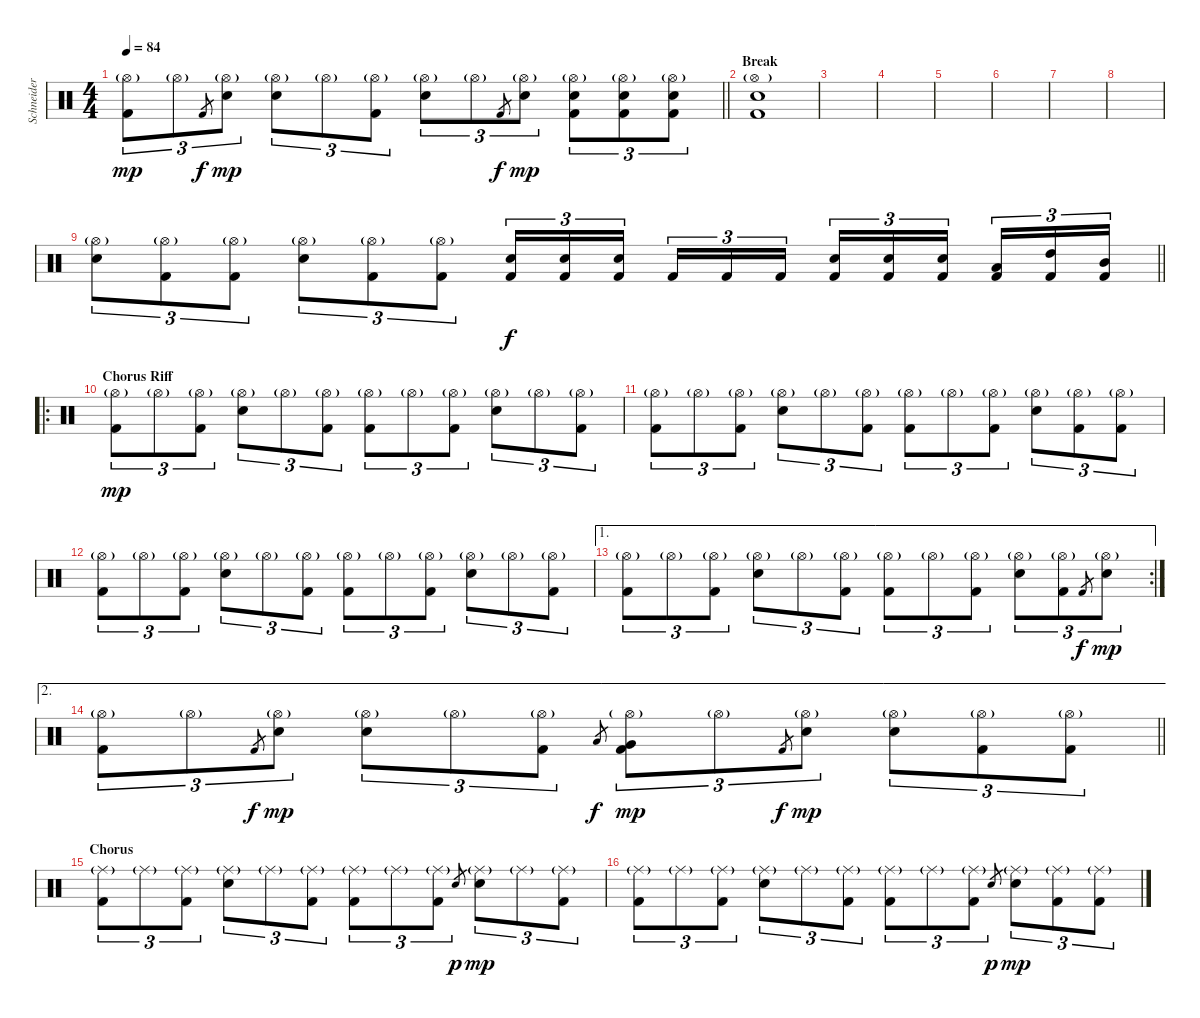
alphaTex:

\track ("Schneider" "Schneider") {instrument percussion}
\staff {score}
\articulation defaults
\ts (4 4)
\tempo 84
\clef neutral
\barLineRight lightlight
\ks c
("Hi-Hat (open)"{g} "Kick (hit) 2").8{tu (3 2) dy mp} "Hi-Hat (open)"{g}.8{tu (3 2)} "Kick (hit) 2".8{gr dy f} ("Hi-Hat (open)"{g} "Electric Snare (hit)").8{tu (3 2) dy mp} ("Hi-Hat (open)"{g} "Electric Snare (hit)").8{tu (3 2)} "Hi-Hat (open)"{g}.8{tu (3 2)} ("Hi-Hat (open)"{g} "Kick (hit) 2").8{tu (3 2)} ("Hi-Hat (open)"{g} "Electric Snare (hit)").8{tu (3 2)} "Hi-Hat (open)"{g}.8{tu (3 2)} "Kick (hit) 2".8{gr dy f} ("Hi-Hat (open)"{g} "Electric Snare (hit)").8{tu (3 2) dy mp} ("Hi-Hat (open)"{g} "Kick (hit) 2" "Electric Snare (hit)").8{tu (3 2)} ("Hi-Hat (open)"{g} "Kick (hit) 2" "Electric Snare (hit)").8{tu (3 2)} ("Hi-Hat (open)"{g} "Kick (hit) 2" "Electric Snare (hit)").8{tu (3 2)} |
\section ("" "Break")
("Hi-Hat (open)"{g} "Kick (hit) 2" "Electric Snare (hit)").1 |
|
|
|
|
|
|
\barLineRight lightlight
("Hi-Hat (open)"{g} "Electric Snare (hit)").8{tu (3 2)} ("Hi-Hat (open)"{g} "Kick (hit) 2").8{tu (3 2)} ("Hi-Hat (open)"{g} "Kick (hit) 2").8{tu (3 2)} ("Hi-Hat (open)"{g} "Electric Snare (hit)").8{tu (3 2)} ("Hi-Hat (open)"{g} "Kick (hit) 2").8{tu (3 2)} ("Hi-Hat (open)"{g} "Kick (hit) 2").8{tu (3 2)} ("Kick (hit) 2" "Electric Snare (hit)").16{tu (3 2) dy f} ("Kick (hit) 2" "Electric Snare (hit)").16{tu (3 2)} ("Kick (hit) 2" "Electric Snare (hit)").16{tu (3 2) beam splitsecondary} "Kick (hit) 2".16{tu (3 2)} "Kick (hit) 2".16{tu (3 2)} "Kick (hit) 2".16{tu (3 2)} ("Kick (hit) 2" "Electric Snare (hit)").16{tu (3 2)} ("Kick (hit) 2" "Electric Snare (hit)").16{tu (3 2)} ("Kick (hit) 2" "Electric Snare (hit)").16{tu (3 2) beam splitsecondary} ("Kick (hit) 2" "Low Tom (hit)").16{tu (3 2)} ("Kick (hit) 2" "High Tom (hit)").16{tu (3 2)} ("Kick (hit) 2" "Mid Tom (hit)").16{tu (3 2)} |
\ro
\section ("" "Chorus Riff")
("Hi-Hat (open)"{g} "Kick (hit) 2").8{tu (3 2) dy mp} "Hi-Hat (open)"{g}.8{tu (3 2)} ("Hi-Hat (open)"{g} "Kick (hit) 2").8{tu (3 2)} ("Hi-Hat (open)"{g} "Electric Snare (hit)").8{tu (3 2)} "Hi-Hat (open)"{g}.8{tu (3 2)} ("Hi-Hat (open)"{g} "Kick (hit) 2").8{tu (3 2)} ("Hi-Hat (open)"{g} "Kick (hit) 2").8{tu (3 2)} "Hi-Hat (open)"{g}.8{tu (3 2)} ("Hi-Hat (open)"{g} "Kick (hit) 2").8{tu (3 2)} ("Hi-Hat (open)"{g} "Electric Snare (hit)").8{tu (3 2)} "Hi-Hat (open)"{g}.8{tu (3 2)} ("Hi-Hat (open)"{g} "Kick (hit) 2").8{tu (3 2)} |
("Hi-Hat (open)"{g} "Kick (hit) 2").8{tu (3 2)} "Hi-Hat (open)"{g}.8{tu (3 2)} ("Hi-Hat (open)"{g} "Kick (hit) 2").8{tu (3 2)} ("Hi-Hat (open)"{g} "Electric Snare (hit)").8{tu (3 2)} "Hi-Hat (open)"{g}.8{tu (3 2)} ("Hi-Hat (open)"{g} "Kick (hit) 2").8{tu (3 2)} ("Hi-Hat (open)"{g} "Kick (hit) 2").8{tu (3 2)} "Hi-Hat (open)"{g}.8{tu (3 2)} ("Hi-Hat (open)"{g} "Kick (hit) 2").8{tu (3 2)} ("Hi-Hat (open)"{g} "Electric Snare (hit)").8{tu (3 2)} ("Hi-Hat (open)"{g} "Kick (hit) 2").8{tu (3 2)} ("Hi-Hat (open)"{g} "Kick (hit) 2").8{tu (3 2)} |
("Hi-Hat (open)"{g} "Kick (hit) 2").8{tu (3 2)} "Hi-Hat (open)"{g}.8{tu (3 2)} ("Hi-Hat (open)"{g} "Kick (hit) 2").8{tu (3 2)} ("Hi-Hat (open)"{g} "Electric Snare (hit)").8{tu (3 2)} "Hi-Hat (open)"{g}.8{tu (3 2)} ("Hi-Hat (open)"{g} "Kick (hit) 2").8{tu (3 2)} ("Hi-Hat (open)"{g} "Kick (hit) 2").8{tu (3 2)} "Hi-Hat (open)"{g}.8{tu (3 2)} ("Hi-Hat (open)"{g} "Kick (hit) 2").8{tu (3 2)} ("Hi-Hat (open)"{g} "Electric Snare (hit)").8{tu (3 2)} "Hi-Hat (open)"{g}.8{tu (3 2)} ("Hi-Hat (open)"{g} "Kick (hit) 2").8{tu (3 2)} |
\ae 1
\rc 2
("Hi-Hat (open)"{g} "Kick (hit) 2").8{tu (3 2)} "Hi-Hat (open)"{g}.8{tu (3 2)} ("Hi-Hat (open)"{g} "Kick (hit) 2").8{tu (3 2)} ("Hi-Hat (open)"{g} "Electric Snare (hit)").8{tu (3 2)} "Hi-Hat (open)"{g}.8{tu (3 2)} ("Hi-Hat (open)"{g} "Kick (hit) 2").8{tu (3 2)} ("Hi-Hat (open)"{g} "Kick (hit) 2").8{tu (3 2)} "Hi-Hat (open)"{g}.8{tu (3 2)} ("Hi-Hat (open)"{g} "Kick (hit) 2").8{tu (3 2)} ("Hi-Hat (open)"{g} "Electric Snare (hit)").8{tu (3 2)} ("Hi-Hat (open)"{g} "Kick (hit) 2").8{tu (3 2)} "Kick (hit) 2".8{gr dy f} ("Hi-Hat (open)"{g} "Electric Snare (hit)").8{tu (3 2) dy mp} |
\ae 2
\barLineRight lightlight
("Hi-Hat (open)"{g} "Kick (hit) 2").8{tu (3 2)} "Hi-Hat (open)"{g}.8{tu (3 2)} "Kick (hit) 2".8{gr dy f} ("Hi-Hat (open)"{g} "Electric Snare (hit)").8{tu (3 2) dy mp} ("Hi-Hat (open)"{g} "Electric Snare (hit)").8{tu (3 2)} "Hi-Hat (open)"{g}.8{tu (3 2)} ("Hi-Hat (open)"{g} "Kick (hit) 2").8{tu (3 2)} "Low Tom (hit)".8{gr dy f} ("Hi-Hat (open)"{g} "Kick (hit) 2" "Very Low Tom (hit)").8{tu (3 2) dy mp} "Hi-Hat (open)"{g}.8{tu (3 2)} "Kick (hit) 2".8{gr dy f} ("Hi-Hat (open)"{g} "Electric Snare (hit)").8{tu (3 2) dy mp} ("Hi-Hat (open)"{g} "Electric Snare (hit)").8{tu (3 2)} ("Hi-Hat (open)"{g} "Kick (hit) 2").8{tu (3 2)} ("Hi-Hat (open)"{g} "Kick (hit) 2").8{tu (3 2)} |
\section ("" "Chorus")
("Ride (middle)"{g} "Kick (hit) 2").8{tu (3 2)} "Ride (middle)"{g}.8{tu (3 2)} ("Ride (middle)"{g} "Kick (hit) 2").8{tu (3 2)} ("Ride (middle)"{g} "Electric Snare (hit)").8{tu (3 2)} "Ride (middle)"{g}.8{tu (3 2)} ("Ride (middle)"{g} "Kick (hit) 2").8{tu (3 2)} ("Ride (middle)"{g} "Kick (hit) 2").8{tu (3 2)} "Ride (middle)"{g}.8{tu (3 2)} ("Ride (middle)"{g} "Kick (hit) 2").8{tu (3 2)} "Electric Snare (hit)"{h}.8{gr dy p} ("Ride (middle)"{g} "Electric Snare (hit)").8{tu (3 2) dy mp} "Ride (middle)"{g}.8{tu (3 2)} ("Ride (middle)"{g} "Kick (hit) 2").8{tu (3 2)} |
("Ride (middle)"{g} "Kick (hit) 2").8{tu (3 2)} "Ride (middle)"{g}.8{tu (3 2)} ("Ride (middle)"{g} "Kick (hit) 2").8{tu (3 2)} ("Ride (middle)"{g} "Electric Snare (hit)").8{tu (3 2)} "Ride (middle)"{g}.8{tu (3 2)} ("Ride (middle)"{g} "Kick (hit) 2").8{tu (3 2)} ("Ride (middle)"{g} "Kick (hit) 2").8{tu (3 2)} "Ride (middle)"{g}.8{tu (3 2)} ("Ride (middle)"{g} "Kick (hit) 2").8{tu (3 2)} "Electric Snare (hit)"{h}.8{gr dy p} ("Ride (middle)"{g} "Electric Snare (hit)").8{tu (3 2) dy mp} ("Ride (middle)"{g} "Kick (hit) 2").8{tu (3 2)} ("Ride (middle)"{g} "Kick (hit) 2").8{tu (3 2)}
